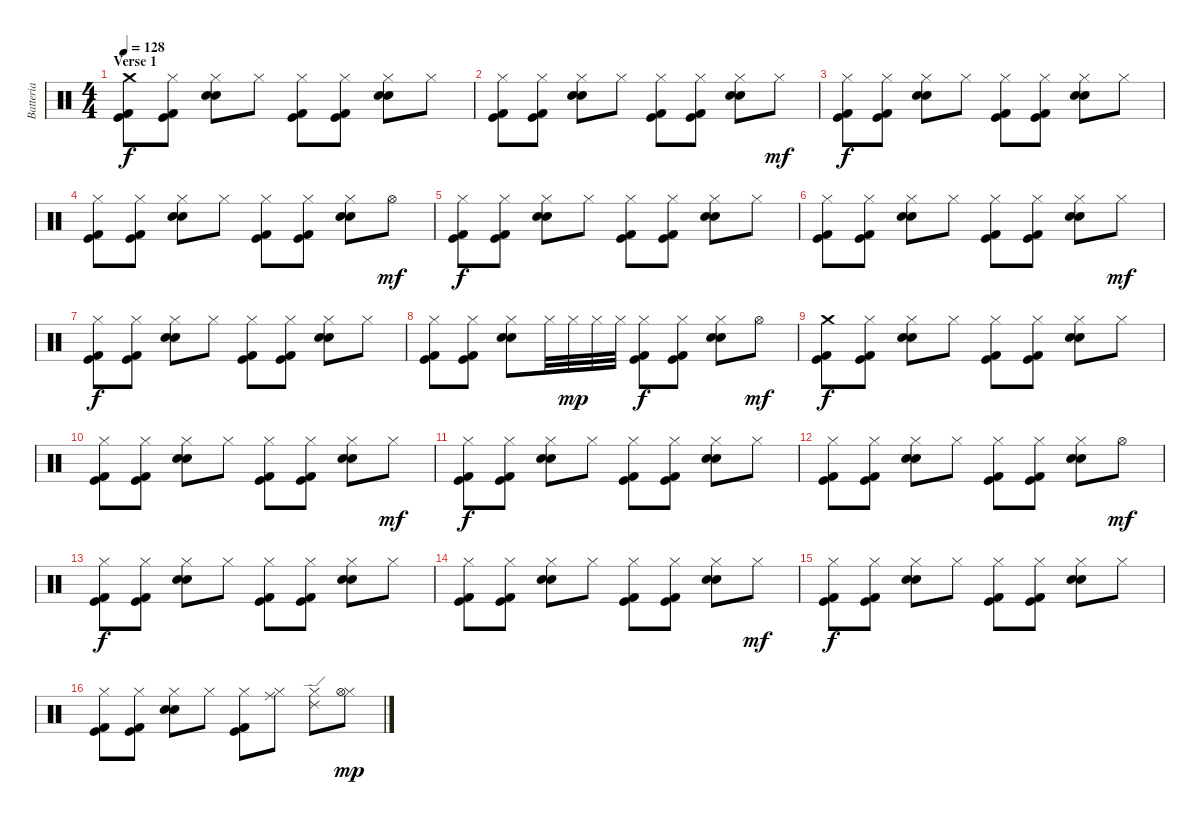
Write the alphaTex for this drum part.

\track ("Batteria" "Batteria") {instrument percussion}
\staff {score}
\articulation defaults
\ts (4 4)
\section ("" "Verse 1")
\tempo 128
\clef neutral
\ks c
("Crash medium (hit)" "Kick (hit) 2" "Kick (hit)").8{dy f} ("Hi-Hat (closed)" "Kick (hit) 2" "Kick (hit)").8 ("Hi-Hat (closed)" "Electric Snare (hit)" "Electric Snare (hit)").8 "Hi-Hat (closed)".8 ("Hi-Hat (closed)" "Kick (hit) 2" "Kick (hit)").8 ("Hi-Hat (closed)" "Kick (hit) 2" "Kick (hit)").8 ("Hi-Hat (closed)" "Electric Snare (hit)" "Electric Snare (hit)").8 "Hi-Hat (closed)".8 |
("Hi-Hat (closed)" "Kick (hit) 2" "Kick (hit)").8 ("Hi-Hat (closed)" "Kick (hit) 2" "Kick (hit)").8 ("Hi-Hat (closed)" "Electric Snare (hit)" "Electric Snare (hit)").8 "Hi-Hat (closed)".8 ("Hi-Hat (closed)" "Kick (hit) 2" "Kick (hit)").8 ("Hi-Hat (closed)" "Kick (hit) 2" "Kick (hit)").8 ("Hi-Hat (closed)" "Electric Snare (hit)" "Electric Snare (hit)").8 "Hi-Hat (closed)".8{dy mf} |
("Hi-Hat (closed)" "Kick (hit) 2" "Kick (hit)").8{dy f} ("Hi-Hat (closed)" "Kick (hit) 2" "Kick (hit)").8 ("Hi-Hat (closed)" "Electric Snare (hit)" "Electric Snare (hit)").8 "Hi-Hat (closed)".8 ("Hi-Hat (closed)" "Kick (hit) 2" "Kick (hit)").8 ("Hi-Hat (closed)" "Kick (hit) 2" "Kick (hit)").8 ("Hi-Hat (closed)" "Electric Snare (hit)" "Electric Snare (hit)").8 "Hi-Hat (closed)".8 |
("Hi-Hat (closed)" "Kick (hit) 2" "Kick (hit)").8 ("Hi-Hat (closed)" "Kick (hit) 2" "Kick (hit)").8 ("Hi-Hat (closed)" "Electric Snare (hit)" "Electric Snare (hit)").8 "Hi-Hat (closed)".8 ("Hi-Hat (closed)" "Kick (hit) 2" "Kick (hit)").8 ("Hi-Hat (closed)" "Kick (hit) 2" "Kick (hit)").8 ("Hi-Hat (closed)" "Electric Snare (hit)" "Electric Snare (hit)").8 "Hi-Hat (open)".8{dy mf} |
("Hi-Hat (closed)" "Kick (hit) 2" "Kick (hit)").8{dy f} ("Hi-Hat (closed)" "Kick (hit) 2" "Kick (hit)").8 ("Hi-Hat (closed)" "Electric Snare (hit)" "Electric Snare (hit)").8 "Hi-Hat (closed)".8 ("Hi-Hat (closed)" "Kick (hit) 2" "Kick (hit)").8 ("Hi-Hat (closed)" "Kick (hit) 2" "Kick (hit)").8 ("Hi-Hat (closed)" "Electric Snare (hit)" "Electric Snare (hit)").8 "Hi-Hat (closed)".8 |
("Hi-Hat (closed)" "Kick (hit) 2" "Kick (hit)").8 ("Hi-Hat (closed)" "Kick (hit) 2" "Kick (hit)").8 ("Hi-Hat (closed)" "Electric Snare (hit)" "Electric Snare (hit)").8 "Hi-Hat (closed)".8 ("Hi-Hat (closed)" "Kick (hit) 2" "Kick (hit)").8 ("Hi-Hat (closed)" "Kick (hit) 2" "Kick (hit)").8 ("Hi-Hat (closed)" "Electric Snare (hit)" "Electric Snare (hit)").8 "Hi-Hat (closed)".8{dy mf} |
("Hi-Hat (closed)" "Kick (hit) 2" "Kick (hit)").8{dy f} ("Hi-Hat (closed)" "Kick (hit) 2" "Kick (hit)").8 ("Hi-Hat (closed)" "Electric Snare (hit)" "Electric Snare (hit)").8 "Hi-Hat (closed)".8 ("Hi-Hat (closed)" "Kick (hit) 2" "Kick (hit)").8 ("Hi-Hat (closed)" "Kick (hit) 2" "Kick (hit)").8 ("Hi-Hat (closed)" "Electric Snare (hit)" "Electric Snare (hit)").8 "Hi-Hat (closed)".8 |
("Hi-Hat (closed)" "Kick (hit) 2" "Kick (hit)").8 ("Hi-Hat (closed)" "Kick (hit) 2" "Kick (hit)").8 ("Hi-Hat (closed)" "Electric Snare (hit)" "Electric Snare (hit)").8 "Hi-Hat (closed)".32 "Hi-Hat (closed)".32{dy mp} "Hi-Hat (closed)".32 "Hi-Hat (closed)".32 ("Hi-Hat (closed)" "Kick (hit) 2" "Kick (hit)").8{dy f} ("Hi-Hat (closed)" "Kick (hit) 2" "Kick (hit)").8 ("Hi-Hat (closed)" "Electric Snare (hit)" "Electric Snare (hit)").8 "Hi-Hat (open)".8{dy mf} |
("Crash medium (hit)" "Kick (hit) 2" "Kick (hit)").8{dy f} ("Hi-Hat (closed)" "Kick (hit) 2" "Kick (hit)").8 ("Hi-Hat (closed)" "Electric Snare (hit)" "Electric Snare (hit)").8 "Hi-Hat (closed)".8 ("Hi-Hat (closed)" "Kick (hit) 2" "Kick (hit)").8 ("Hi-Hat (closed)" "Kick (hit) 2" "Kick (hit)").8 ("Hi-Hat (closed)" "Electric Snare (hit)" "Electric Snare (hit)").8 "Hi-Hat (closed)".8 |
("Hi-Hat (closed)" "Kick (hit) 2" "Kick (hit)").8 ("Hi-Hat (closed)" "Kick (hit) 2" "Kick (hit)").8 ("Hi-Hat (closed)" "Electric Snare (hit)" "Electric Snare (hit)").8 "Hi-Hat (closed)".8 ("Hi-Hat (closed)" "Kick (hit) 2" "Kick (hit)").8 ("Hi-Hat (closed)" "Kick (hit) 2" "Kick (hit)").8 ("Hi-Hat (closed)" "Electric Snare (hit)" "Electric Snare (hit)").8 "Hi-Hat (closed)".8{dy mf} |
("Hi-Hat (closed)" "Kick (hit) 2" "Kick (hit)").8{dy f} ("Hi-Hat (closed)" "Kick (hit) 2" "Kick (hit)").8 ("Hi-Hat (closed)" "Electric Snare (hit)" "Electric Snare (hit)").8 "Hi-Hat (closed)".8 ("Hi-Hat (closed)" "Kick (hit) 2" "Kick (hit)").8 ("Hi-Hat (closed)" "Kick (hit) 2" "Kick (hit)").8 ("Hi-Hat (closed)" "Electric Snare (hit)" "Electric Snare (hit)").8 "Hi-Hat (closed)".8 |
("Hi-Hat (closed)" "Kick (hit) 2" "Kick (hit)").8 ("Hi-Hat (closed)" "Kick (hit) 2" "Kick (hit)").8 ("Hi-Hat (closed)" "Electric Snare (hit)" "Electric Snare (hit)").8 "Hi-Hat (closed)".8 ("Hi-Hat (closed)" "Kick (hit) 2" "Kick (hit)").8 ("Hi-Hat (closed)" "Kick (hit) 2" "Kick (hit)").8 ("Hi-Hat (closed)" "Electric Snare (hit)" "Electric Snare (hit)").8 "Hi-Hat (open)".8{dy mf} |
("Hi-Hat (closed)" "Kick (hit) 2" "Kick (hit)").8{dy f} ("Hi-Hat (closed)" "Kick (hit) 2" "Kick (hit)").8 ("Hi-Hat (closed)" "Electric Snare (hit)" "Electric Snare (hit)").8 "Hi-Hat (closed)".8 ("Hi-Hat (closed)" "Kick (hit) 2" "Kick (hit)").8 ("Hi-Hat (closed)" "Kick (hit) 2" "Kick (hit)").8 ("Hi-Hat (closed)" "Electric Snare (hit)" "Electric Snare (hit)").8 "Hi-Hat (closed)".8 |
("Hi-Hat (closed)" "Kick (hit) 2" "Kick (hit)").8 ("Hi-Hat (closed)" "Kick (hit) 2" "Kick (hit)").8 ("Hi-Hat (closed)" "Electric Snare (hit)" "Electric Snare (hit)").8 "Hi-Hat (closed)".8 ("Hi-Hat (closed)" "Kick (hit) 2" "Kick (hit)").8 ("Hi-Hat (closed)" "Kick (hit) 2" "Kick (hit)").8 ("Hi-Hat (closed)" "Electric Snare (hit)" "Electric Snare (hit)").8 "Hi-Hat (closed)".8{dy mf} |
("Hi-Hat (closed)" "Kick (hit) 2" "Kick (hit)").8{dy f} ("Hi-Hat (closed)" "Kick (hit) 2" "Kick (hit)").8 ("Hi-Hat (closed)" "Electric Snare (hit)" "Electric Snare (hit)").8 "Hi-Hat (closed)".8 ("Hi-Hat (closed)" "Kick (hit) 2" "Kick (hit)").8 ("Hi-Hat (closed)" "Kick (hit) 2" "Kick (hit)").8 ("Hi-Hat (closed)" "Electric Snare (hit)" "Electric Snare (hit)").8 "Hi-Hat (closed)".8 |
("Hi-Hat (closed)" "Kick (hit) 2" "Kick (hit)").8 ("Hi-Hat (closed)" "Kick (hit) 2" "Kick (hit)").8 ("Hi-Hat (closed)" "Electric Snare (hit)" "Electric Snare (hit)").8 "Hi-Hat (closed)".8 ("Hi-Hat (closed)" "Kick (hit) 2" "Kick (hit)").8 ("Hi-Hat (closed)" "Ride (middle)").8 ("Hi-Hat (closed)" "Ride (edge) 2").8 ("Hi-Hat (closed)" "Hi-Hat (open)").8{dy mp}
